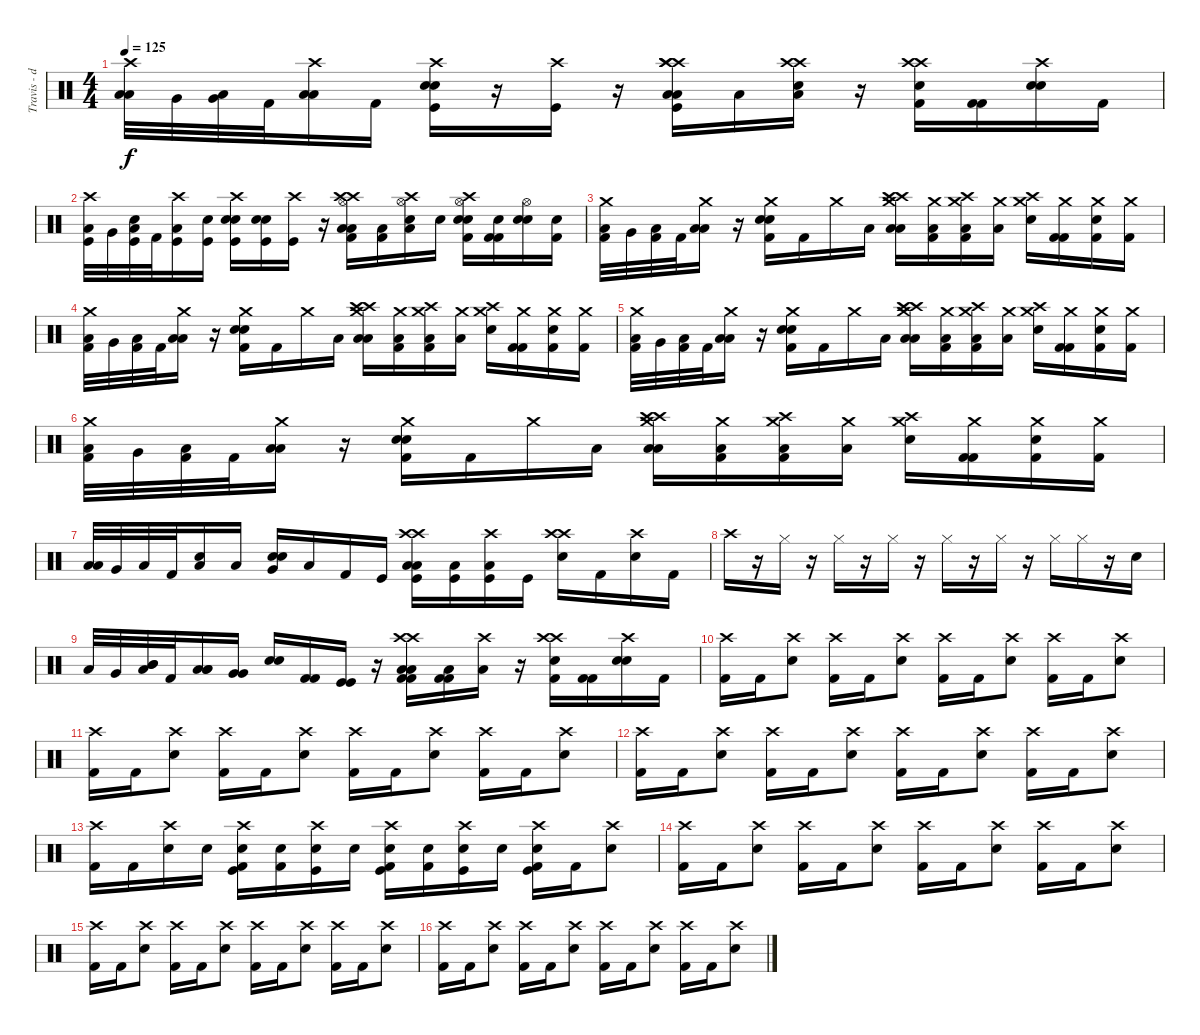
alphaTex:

\track ("Travis - drums" "Travis - d") {instrument percussion}
\staff {score}
\articulation defaults
\ts (4 4)
\tempo 125
\clef neutral
\ks c
("Low Tom (hit)" "Crash high (hit)" "Low Floor Tom (hit)").32{dy f} "Very Low Tom (hit)".32 ("Very Low Tom (hit)" "Low Floor Tom (hit)").32 "Kick (hit) 2".32 ("Low Floor Tom (hit)" "Crash high (hit)" "Low Floor Tom (hit)").16 "Kick (hit) 2".16 ("Kick (hit)" "Crash high (hit)" "Electric Snare (hit)" "Electric Snare (hit)").16 r.16 ("Kick (hit)" "Crash high (hit)").16 r.16 ("Kick (hit)" "Crash high (hit)" "Crash high (hit)" "Low Floor Tom (hit)" "Low Floor Tom (hit)" "Crash high (hit)").16 "Low Floor Tom (hit)".16 ("Electric Snare (hit)" "Crash high (hit)" "Low Floor Tom (hit)" "Crash high (hit)").16 r.16 ("Kick (hit) 2" "Crash high (hit)" "Crash high (hit)" "Electric Snare (hit)").16 ("Kick (hit) 2" "Kick (hit) 2").16 ("Electric Snare (hit)" "Crash high (hit)" "Electric Snare (hit)").16 "Kick (hit) 2".16 |
("Crash high (hit)" "Kick (hit)" "Low Floor Tom (hit)").32 "Very Low Tom (hit)".32 ("Electric Snare (hit)" "Kick (hit)" "Low Floor Tom (hit)").32 "Kick (hit) 2".32 ("Crash high (hit)" "Kick (hit)" "Low Floor Tom (hit)").16 ("Electric Snare (hit)" "Kick (hit)").16 ("Crash high (hit)" "Kick (hit)" "Electric Snare (hit)" "Electric Snare (hit)").16 ("Electric Snare (hit)" "Electric Snare (hit)" "Kick (hit)").16 ("Crash high (hit)" "Kick (hit)").16 r.16 ("Kick (hit) 2" "Hi-Hat (open)" "Crash high (hit)" "Low Floor Tom (hit)" "Low Floor Tom (hit)" "Crash high (hit)").16 ("Kick (hit) 2" "Low Floor Tom (hit)").16 ("Electric Snare (hit)" "Hi-Hat (open)" "Low Floor Tom (hit)" "Crash high (hit)").16 "Electric Snare (hit)".16 ("Electric Snare (hit)" "Kick (hit) 2" "Hi-Hat (open)" "Crash high (hit)" "Electric Snare (hit)").16 ("Electric Snare (hit)" "Kick (hit) 2" "Kick (hit) 2").16 ("Electric Snare (hit)" "Hi-Hat (open)" "Electric Snare (hit)").16 ("Electric Snare (hit)" "Kick (hit) 2").16 |
("Kick (hit) 2" "Crash medium (hit)" "Low Floor Tom (hit)").32 "Very Low Tom (hit)".32 ("Kick (hit) 2" "Low Floor Tom (hit)").32 "Kick (hit) 2".32 ("Low Tom (hit)" "Crash medium (hit)" "Low Floor Tom (hit)").16 r.16 ("Kick (hit) 2" "Crash medium (hit)" "Electric Snare (hit)" "Electric Snare (hit)").16 "Kick (hit) 2".16 "Crash medium (hit)".16 "Low Tom (hit)".16 ("Crash medium (hit)" "Crash high (hit)" "Low Floor Tom (hit)" "Low Floor Tom (hit)" "Crash high (hit)").16 ("Kick (hit) 2" "Crash medium (hit)" "Low Floor Tom (hit)").16 ("Kick (hit) 2" "Crash medium (hit)" "Low Floor Tom (hit)" "Crash high (hit)").16 ("Low Tom (hit)" "Crash medium (hit)").16 ("Crash medium (hit)" "Crash high (hit)" "Electric Snare (hit)").16 ("Kick (hit) 2" "Crash medium (hit)" "Kick (hit) 2").16 ("Kick (hit) 2" "Crash medium (hit)" "Electric Snare (hit)").16 ("Crash medium (hit)" "Kick (hit) 2").16 |
("Crash medium (hit)" "Kick (hit) 2" "Low Floor Tom (hit)").32 "Very Low Tom (hit)".32 ("Kick (hit) 2" "Low Floor Tom (hit)").32 "Kick (hit) 2".32 ("Crash medium (hit)" "Low Tom (hit)" "Low Floor Tom (hit)").16 r.16 ("Crash medium (hit)" "Kick (hit) 2" "Electric Snare (hit)" "Electric Snare (hit)").16 "Kick (hit) 2".16 "Crash medium (hit)".16 "Low Tom (hit)".16 ("Crash medium (hit)" "Crash high (hit)" "Low Floor Tom (hit)" "Low Floor Tom (hit)" "Crash high (hit)").16 ("Crash medium (hit)" "Kick (hit) 2" "Low Floor Tom (hit)").16 ("Crash medium (hit)" "Kick (hit) 2" "Low Floor Tom (hit)" "Crash high (hit)").16 ("Crash medium (hit)" "Low Tom (hit)").16 ("Crash medium (hit)" "Crash high (hit)" "Electric Snare (hit)").16 ("Crash medium (hit)" "Kick (hit) 2" "Kick (hit) 2").16 ("Crash medium (hit)" "Kick (hit) 2" "Electric Snare (hit)").16 ("Crash medium (hit)" "Kick (hit) 2").16 |
("Kick (hit) 2" "Crash medium (hit)" "Low Floor Tom (hit)").32 "Very Low Tom (hit)".32 ("Kick (hit) 2" "Low Floor Tom (hit)").32 "Kick (hit) 2".32 ("Low Tom (hit)" "Crash medium (hit)" "Low Floor Tom (hit)").16 r.16 ("Kick (hit) 2" "Crash medium (hit)" "Electric Snare (hit)" "Electric Snare (hit)").16 "Kick (hit) 2".16 "Crash medium (hit)".16 "Low Tom (hit)".16 ("Crash medium (hit)" "Crash high (hit)" "Low Floor Tom (hit)" "Low Floor Tom (hit)" "Crash high (hit)").16 ("Kick (hit) 2" "Crash medium (hit)" "Low Floor Tom (hit)").16 ("Kick (hit) 2" "Crash medium (hit)" "Low Floor Tom (hit)" "Crash high (hit)").16 ("Low Tom (hit)" "Crash medium (hit)").16 ("Crash medium (hit)" "Crash high (hit)" "Electric Snare (hit)").16 ("Kick (hit) 2" "Crash medium (hit)" "Kick (hit) 2").16 ("Kick (hit) 2" "Crash medium (hit)" "Electric Snare (hit)").16 ("Crash medium (hit)" "Kick (hit) 2").16 |
("Crash medium (hit)" "Kick (hit) 2" "Low Floor Tom (hit)").32 "Very Low Tom (hit)".32 ("Kick (hit) 2" "Low Floor Tom (hit)").32 "Kick (hit) 2".32 ("Crash medium (hit)" "Low Tom (hit)" "Low Floor Tom (hit)").16 r.16 ("Crash medium (hit)" "Kick (hit) 2" "Electric Snare (hit)" "Electric Snare (hit)").16 "Kick (hit) 2".16 "Crash medium (hit)".16 "Low Tom (hit)".16 ("Crash medium (hit)" "Crash high (hit)" "Low Floor Tom (hit)" "Low Floor Tom (hit)" "Crash high (hit)").16 ("Crash medium (hit)" "Kick (hit) 2" "Low Floor Tom (hit)").16 ("Crash medium (hit)" "Kick (hit) 2" "Low Floor Tom (hit)" "Crash high (hit)").16 ("Crash medium (hit)" "Low Tom (hit)").16 ("Crash medium (hit)" "Crash high (hit)" "Electric Snare (hit)").16 ("Crash medium (hit)" "Kick (hit) 2" "Kick (hit) 2").16 ("Crash medium (hit)" "Kick (hit) 2" "Electric Snare (hit)").16 ("Crash medium (hit)" "Kick (hit) 2").16 |
("Low Tom (hit)" "Low Floor Tom (hit)").32 "Very Low Tom (hit)".32 "Low Floor Tom (hit)".32 "Kick (hit) 2".32 ("Electric Snare (hit)" "Low Floor Tom (hit)").16 "Low Tom (hit)".16 ("Very Low Tom (hit)" "Electric Snare (hit)" "Electric Snare (hit)").16 "Low Floor Tom (hit)".16 "Kick (hit) 2".16 "Kick (hit)".16 ("Kick (hit)" "Crash high (hit)" "Low Floor Tom (hit)" "Low Floor Tom (hit)" "Crash high (hit)").16 ("Kick (hit)" "Low Floor Tom (hit)").16 ("Kick (hit)" "Low Floor Tom (hit)" "Crash high (hit)").16 "Kick (hit)".16 ("Crash high (hit)" "Crash high (hit)" "Electric Snare (hit)").16 "Kick (hit) 2".16 ("Crash high (hit)" "Electric Snare (hit)").16 "Kick (hit) 2".16 |
"Crash high (hit)".16 r.16 "Hi-Hat (closed)".16 r.16 "Hi-Hat (closed)".16 r.16 "Hi-Hat (closed)".16 r.16 "Hi-Hat (closed)".16 r.16 "Hi-Hat (closed)".16 r.16 "Hi-Hat (closed)".16 "Hi-Hat (closed)".16 r.16 "Snare (hit) 2".16 |
"Low Floor Tom (hit)".32 "Very Low Tom (hit)".32 ("Mid Tom (hit)" "Mid Tom (hit)" "Low Floor Tom (hit)").32 "Kick (hit) 2".32 ("Low Tom (hit)" "Low Tom (hit)" "Low Floor Tom (hit)").16 ("Very Low Tom (hit)" "Very Low Tom (hit)").16 ("Electric Snare (hit)" "Electric Snare (hit)").16 ("Kick (hit) 2" "Kick (hit) 2").16 ("Kick (hit)" "Kick (hit)").16 r.16 ("Kick (hit) 2" "Kick (hit) 2" "Crash high (hit)" "Low Floor Tom (hit)" "Low Floor Tom (hit)" "Crash high (hit)").16 ("Kick (hit) 2" "Kick (hit) 2" "Low Floor Tom (hit)").16 ("Low Floor Tom (hit)" "Crash high (hit)").16 r.16 ("Crash high (hit)" "Kick (hit) 2" "Crash high (hit)" "Electric Snare (hit)").16 ("Kick (hit) 2" "Kick (hit) 2").16 ("Crash high (hit)" "Snare (hit) 2" "Electric Snare (hit)").16 "Kick (hit) 2".16 |
("Crash high (hit)" "Kick (hit) 2").16 "Kick (hit) 2".16 ("Crash high (hit)" "Snare (hit) 2").8 ("Crash high (hit)" "Kick (hit) 2").16 "Kick (hit) 2".16 ("Crash high (hit)" "Snare (hit) 2").8 ("Crash high (hit)" "Kick (hit) 2").16 "Kick (hit) 2".16 ("Crash high (hit)" "Electric Snare (hit)").8 ("Crash high (hit)" "Kick (hit) 2").16 "Kick (hit) 2".16 ("Crash high (hit)" "Electric Snare (hit)").8 |
("Crash high (hit)" "Kick (hit) 2").16 "Kick (hit) 2".16 ("Crash high (hit)" "Electric Snare (hit)").8 ("Crash high (hit)" "Kick (hit) 2").16 "Kick (hit) 2".16 ("Crash high (hit)" "Snare (hit) 2").8 ("Crash high (hit)" "Kick (hit) 2").16 "Kick (hit) 2".16 ("Crash high (hit)" "Electric Snare (hit)").8 ("Crash high (hit)" "Kick (hit) 2").16 "Kick (hit) 2".16 ("Crash high (hit)" "Electric Snare (hit)").8 |
("Crash high (hit)" "Kick (hit) 2").16 "Kick (hit) 2".16 ("Crash high (hit)" "Electric Snare (hit)").8 ("Crash high (hit)" "Kick (hit) 2").16 "Kick (hit) 2".16 ("Crash high (hit)" "Snare (hit) 2").8 ("Crash high (hit)" "Kick (hit) 2").16 "Kick (hit) 2".16 ("Crash high (hit)" "Electric Snare (hit)").8 ("Crash high (hit)" "Kick (hit) 2").16 "Kick (hit) 2".16 ("Crash high (hit)" "Electric Snare (hit)").8 |
("Crash high (hit)" "Kick (hit) 2").16 "Kick (hit) 2".16 ("Crash high (hit)" "Electric Snare (hit)").16 "Electric Snare (hit)".16 ("Kick (hit)" "Electric Snare (hit)" "Crash high (hit)" "Kick (hit) 2").16 ("Electric Snare (hit)" "Kick (hit) 2").16 ("Kick (hit)" "Crash high (hit)" "Snare (hit) 2").16 "Electric Snare (hit)".16 ("Kick (hit)" "Electric Snare (hit)" "Crash high (hit)" "Kick (hit) 2").16 ("Electric Snare (hit)" "Kick (hit) 2").16 ("Kick (hit)" "Crash high (hit)" "Electric Snare (hit)").16 "Snare (hit) 2".16 ("Kick (hit)" "Snare (hit) 2" "Crash high (hit)" "Kick (hit) 2").16 "Kick (hit) 2".16 ("Crash high (hit)" "Electric Snare (hit)").8 |
("Crash high (hit)" "Kick (hit) 2").16 "Kick (hit) 2".16 ("Crash high (hit)" "Electric Snare (hit)").8 ("Crash high (hit)" "Kick (hit) 2").16 "Kick (hit) 2".16 ("Crash high (hit)" "Snare (hit) 2").8 ("Crash high (hit)" "Kick (hit) 2").16 "Kick (hit) 2".16 ("Crash high (hit)" "Electric Snare (hit)").8 ("Crash high (hit)" "Kick (hit) 2").16 "Kick (hit) 2".16 ("Crash high (hit)" "Electric Snare (hit)").8 |
("Crash high (hit)" "Kick (hit) 2").16 "Kick (hit) 2".16 ("Crash high (hit)" "Electric Snare (hit)").8 ("Crash high (hit)" "Kick (hit) 2").16 "Kick (hit) 2".16 ("Crash high (hit)" "Snare (hit) 2").8 ("Crash high (hit)" "Kick (hit) 2").16 "Kick (hit) 2".16 ("Crash high (hit)" "Electric Snare (hit)").8 ("Crash high (hit)" "Kick (hit) 2").16 "Kick (hit) 2".16 ("Crash high (hit)" "Electric Snare (hit)").8 |
("Crash high (hit)" "Kick (hit) 2").16 "Kick (hit) 2".16 ("Crash high (hit)" "Electric Snare (hit)").8 ("Crash high (hit)" "Kick (hit) 2").16 "Kick (hit) 2".16 ("Crash high (hit)" "Snare (hit) 2").8 ("Crash high (hit)" "Kick (hit) 2").16 "Kick (hit) 2".16 ("Crash high (hit)" "Electric Snare (hit)").8 ("Crash high (hit)" "Kick (hit) 2").16 "Kick (hit) 2".16 ("Crash high (hit)" "Electric Snare (hit)").8
